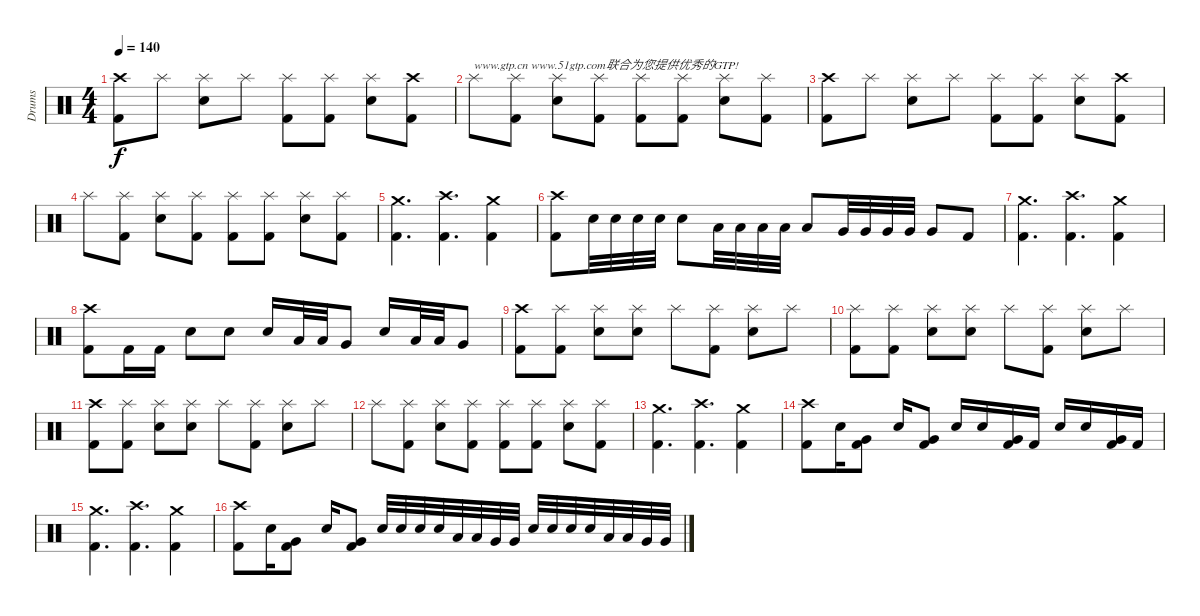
\track ("Drums" "Drums") {instrument percussion}
\staff {score}
\articulation defaults
\ts (4 4)
\tempo 140
\clef neutral
\ks c
("Crash high (hit)" "Kick (hit) 2").8{dy f} "Splash (hit)".8 ("Splash (hit)" "Snare (hit) 2").8 "Splash (hit)".8 ("Splash (hit)" "Kick (hit) 2").8 ("Splash (hit)" "Kick (hit) 2").8 ("Splash (hit)" "Snare (hit) 2").8 ("Crash high (hit)" "Kick (hit) 2").8 |
"Splash (hit)".8{txt "www.gtp.cn www.51gtp.com联合为您提供优秀的GTP!"} ("Splash (hit)" "Kick (hit) 2").8 ("Splash (hit)" "Snare (hit) 2").8 ("Splash (hit)" "Kick (hit) 2").8 ("Splash (hit)" "Kick (hit) 2").8 ("Splash (hit)" "Kick (hit) 2").8 ("Splash (hit)" "Snare (hit) 2").8 ("Splash (hit)" "Kick (hit) 2").8 |
("Crash high (hit)" "Kick (hit) 2").8 "Splash (hit)".8 ("Splash (hit)" "Snare (hit) 2").8 "Splash (hit)".8 ("Splash (hit)" "Kick (hit) 2").8 ("Splash (hit)" "Kick (hit) 2").8 ("Splash (hit)" "Snare (hit) 2").8 ("Crash high (hit)" "Kick (hit) 2").8 |
"Splash (hit)".8 ("Splash (hit)" "Kick (hit) 2").8 ("Splash (hit)" "Snare (hit) 2").8 ("Splash (hit)" "Kick (hit) 2").8 ("Splash (hit)" "Kick (hit) 2").8 ("Splash (hit)" "Kick (hit) 2").8 ("Splash (hit)" "Snare (hit) 2").8 ("Splash (hit)" "Kick (hit) 2").8 |
("Crash medium (hit)" "Kick (hit) 2").4{d} ("Crash high (hit)" "Kick (hit) 2").4{d} ("Crash medium (hit)" "Kick (hit) 2").4 |
("Crash high (hit)" "Kick (hit) 2").8 "Snare (hit) 2".32 "Snare (hit) 2".32 "Snare (hit) 2".32 "Snare (hit) 2".32 "Snare (hit) 2".8 "Low Tom (hit)".32 "Low Tom (hit)".32 "Low Tom (hit)".32 "Low Tom (hit)".32 "Low Tom (hit)".8 "Very Low Tom (hit)".32 "Very Low Tom (hit)".32 "Very Low Tom (hit)".32 "Very Low Tom (hit)".32 "Very Low Tom (hit)".8 "Kick (hit) 2".8 |
("Crash medium (hit)" "Kick (hit) 2").4{d} ("Crash high (hit)" "Kick (hit) 2").4{d} ("Crash medium (hit)" "Kick (hit) 2").4 |
("Crash high (hit)" "Kick (hit) 2").8 "Kick (hit) 2".16 "Kick (hit) 2".16 "Snare (hit) 2".8 "Snare (hit) 2".8 "Snare (hit) 2".16 "Low Tom (hit)".32 "Low Tom (hit)".32 "Very Low Tom (hit)".8 "Snare (hit) 2".16 "Low Tom (hit)".32 "Low Tom (hit)".32 "Very Low Tom (hit)".8 |
("Crash high (hit)" "Kick (hit) 2").8 ("Splash (hit)" "Kick (hit) 2").8 ("Splash (hit)" "Snare (hit) 2").8 ("Splash (hit)" "Snare (hit) 2").8 "Splash (hit)".8 ("Splash (hit)" "Kick (hit) 2").8 ("Splash (hit)" "Snare (hit) 2").8 "Splash (hit)".8 |
("Splash (hit)" "Kick (hit) 2").8 ("Splash (hit)" "Kick (hit) 2").8 ("Splash (hit)" "Snare (hit) 2").8 ("Splash (hit)" "Snare (hit) 2").8 "Splash (hit)".8 ("Splash (hit)" "Kick (hit) 2").8 ("Splash (hit)" "Snare (hit) 2").8 "Splash (hit)".8 |
("Crash high (hit)" "Kick (hit) 2").8 ("Splash (hit)" "Kick (hit) 2").8 ("Splash (hit)" "Snare (hit) 2").8 ("Splash (hit)" "Snare (hit) 2").8 "Splash (hit)".8 ("Splash (hit)" "Kick (hit) 2").8 ("Splash (hit)" "Snare (hit) 2").8 "Splash (hit)".8 |
"Splash (hit)".8 ("Splash (hit)" "Kick (hit) 2").8 ("Splash (hit)" "Snare (hit) 2").8 ("Splash (hit)" "Kick (hit) 2").8 ("Splash (hit)" "Kick (hit) 2").8 ("Splash (hit)" "Kick (hit) 2").8 ("Splash (hit)" "Snare (hit) 2").8 ("Splash (hit)" "Kick (hit) 2").8 |
("Crash medium (hit)" "Kick (hit) 2").4{d} ("Crash high (hit)" "Kick (hit) 2").4{d} ("Crash medium (hit)" "Kick (hit) 2").4 |
("Crash high (hit)" "Kick (hit) 2").8 "Snare (hit) 2".16 ("Very Low Tom (hit)" "Kick (hit) 2").8 "Snare (hit) 2".16 ("Very Low Tom (hit)" "Kick (hit) 2").8 "Snare (hit) 2".16 "Snare (hit) 2".16 ("Very Low Tom (hit)" "Kick (hit) 2").16 "Kick (hit) 2".16 "Snare (hit) 2".16 "Snare (hit) 2".16 ("Very Low Tom (hit)" "Kick (hit) 2").16 "Kick (hit) 2".16 |
("Crash medium (hit)" "Kick (hit) 2").4{d} ("Crash high (hit)" "Kick (hit) 2").4{d} ("Crash medium (hit)" "Kick (hit) 2").4 |
("Crash high (hit)" "Kick (hit) 2").8 "Snare (hit) 2".16 ("Very Low Tom (hit)" "Kick (hit) 2").8 "Snare (hit) 2".16 ("Very Low Tom (hit)" "Kick (hit) 2").8 "Snare (hit) 2".32 "Snare (hit) 2".32 "Snare (hit) 2".32 "Snare (hit) 2".32 "Low Tom (hit)".32 "Low Tom (hit)".32 "Very Low Tom (hit)".32 "Very Low Tom (hit)".32 "Snare (hit) 2".32 "Snare (hit) 2".32 "Snare (hit) 2".32 "Snare (hit) 2".32 "Low Tom (hit)".32 "Low Tom (hit)".32 "Very Low Tom (hit)".32 "Very Low Tom (hit)".32
